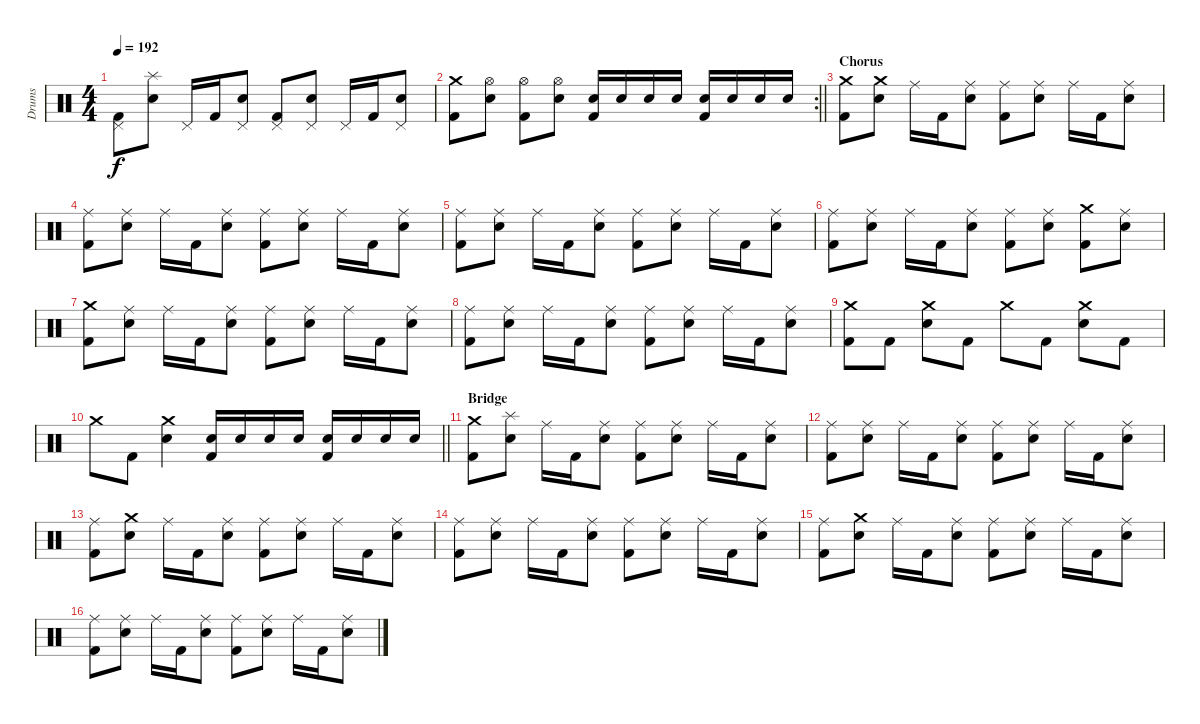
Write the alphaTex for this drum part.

\track ("Drums" "Drums") {instrument percussion}
\staff {score}
\articulation defaults
\ts (4 4)
\tempo 192
\clef neutral
\ks c
("Pedal Hi-Hat (hit)" "Kick (hit) 2").8{dy f} ("Splash (hit)" "Electric Snare (hit)").8 "Pedal Hi-Hat (hit)".16 "Kick (hit) 2".16 ("Pedal Hi-Hat (hit)" "Electric Snare (hit)").8 ("Pedal Hi-Hat (hit)" "Kick (hit) 2").8 ("Pedal Hi-Hat (hit)" "Electric Snare (hit)").8 "Pedal Hi-Hat (hit)".16 "Kick (hit) 2".16 ("Pedal Hi-Hat (hit)" "Electric Snare (hit)").8 |
\rc 2
\barLineRight lightlight
("Crash medium (hit)" "Kick (hit) 2").8 ("Hi-Hat (open)" "Electric Snare (hit)").8 ("Hi-Hat (open)" "Kick (hit) 2").8 ("Hi-Hat (open)" "Electric Snare (hit)").8 ("Electric Snare (hit)" "Kick (hit) 2").16 "Electric Snare (hit)".16 "Electric Snare (hit)".16 "Electric Snare (hit)".16 ("Electric Snare (hit)" "Kick (hit) 2").16 "Electric Snare (hit)".16 "Electric Snare (hit)".16 "Electric Snare (hit)".16 |
\section ("" "Chorus")
("Crash medium (hit)" "Kick (hit) 2").8 ("Crash medium (hit)" "Electric Snare (hit)").8 "Ride (middle)".16 "Kick (hit) 2".16 ("Ride (middle)" "Electric Snare (hit)").8 ("Ride (middle)" "Kick (hit) 2").8 ("Ride (middle)" "Electric Snare (hit)").8 "Ride (middle)".16 "Kick (hit) 2".16 ("Ride (middle)" "Electric Snare (hit)").8 |
("Ride (middle)" "Kick (hit) 2").8 ("Ride (middle)" "Electric Snare (hit)").8 "Ride (middle)".16 "Kick (hit) 2".16 ("Ride (middle)" "Electric Snare (hit)").8 ("Ride (middle)" "Kick (hit) 2").8 ("Ride (middle)" "Electric Snare (hit)").8 "Ride (middle)".16 "Kick (hit) 2".16 ("Ride (middle)" "Electric Snare (hit)").8 |
("Ride (middle)" "Kick (hit) 2").8 ("Ride (middle)" "Electric Snare (hit)").8 "Ride (middle)".16 "Kick (hit) 2".16 ("Ride (middle)" "Electric Snare (hit)").8 ("Ride (middle)" "Kick (hit) 2").8 ("Ride (middle)" "Electric Snare (hit)").8 "Ride (middle)".16 "Kick (hit) 2".16 ("Ride (middle)" "Electric Snare (hit)").8 |
("Ride (middle)" "Kick (hit) 2").8 ("Ride (middle)" "Electric Snare (hit)").8 "Ride (middle)".16 "Kick (hit) 2".16 ("Ride (middle)" "Electric Snare (hit)").8 ("Ride (middle)" "Kick (hit) 2").8 ("Ride (middle)" "Electric Snare (hit)").8 ("Crash medium (hit)" "Kick (hit) 2").8 ("Ride (middle)" "Electric Snare (hit)").8 |
("Crash medium (hit)" "Kick (hit) 2").8 ("Ride (middle)" "Electric Snare (hit)").8 "Ride (middle)".16 "Kick (hit) 2".16 ("Ride (middle)" "Electric Snare (hit)").8 ("Ride (middle)" "Kick (hit) 2").8 ("Ride (middle)" "Electric Snare (hit)").8 "Ride (middle)".16 "Kick (hit) 2".16 ("Ride (middle)" "Electric Snare (hit)").8 |
("Ride (middle)" "Kick (hit) 2").8 ("Ride (middle)" "Electric Snare (hit)").8 "Ride (middle)".16 "Kick (hit) 2".16 ("Ride (middle)" "Electric Snare (hit)").8 ("Ride (middle)" "Kick (hit) 2").8 ("Ride (middle)" "Electric Snare (hit)").8 "Ride (middle)".16 "Kick (hit) 2".16 ("Ride (middle)" "Electric Snare (hit)").8 |
("Crash medium (hit)" "Kick (hit) 2").8 "Kick (hit) 2".8 ("Crash medium (hit)" "Electric Snare (hit)").8 "Kick (hit) 2".8 "Crash medium (hit)".8 "Kick (hit) 2".8 ("Crash medium (hit)" "Electric Snare (hit)").8 "Kick (hit) 2".8 |
\barLineRight lightlight "Crash medium (hit)".8 "Kick (hit) 2".8
("Crash medium (hit)" "Electric Snare (hit)").4 ("Electric Snare (hit)" "Kick (hit) 2").16 "Electric Snare (hit)".16 "Electric Snare (hit)".16 "Electric Snare (hit)".16 ("Electric Snare (hit)" "Kick (hit) 2").16 "Electric Snare (hit)".16 "Electric Snare (hit)".16 "Electric Snare (hit)".16 |
\section ("" "Bridge")
("Crash medium (hit)" "Kick (hit) 2").8 ("Splash (hit)" "Electric Snare (hit)").8 "Ride (middle)".16 "Kick (hit) 2".16 ("Ride (middle)" "Electric Snare (hit)").8 ("Ride (middle)" "Kick (hit) 2").8 ("Ride (middle)" "Electric Snare (hit)").8 "Ride (middle)".16 "Kick (hit) 2".16 ("Ride (middle)" "Electric Snare (hit)").8 |
("Ride (middle)" "Kick (hit) 2").8 ("Ride (middle)" "Electric Snare (hit)").8 "Ride (middle)".16 "Kick (hit) 2".16 ("Ride (middle)" "Electric Snare (hit)").8 ("Ride (middle)" "Kick (hit) 2").8 ("Ride (middle)" "Electric Snare (hit)").8 "Ride (middle)".16 "Kick (hit) 2".16 ("Ride (middle)" "Electric Snare (hit)").8 |
("Ride (middle)" "Kick (hit) 2").8 ("Crash medium (hit)" "Electric Snare (hit)").8 "Ride (middle)".16 "Kick (hit) 2".16 ("Ride (middle)" "Electric Snare (hit)").8 ("Ride (middle)" "Kick (hit) 2").8 ("Ride (middle)" "Electric Snare (hit)").8 "Ride (middle)".16 "Kick (hit) 2".16 ("Ride (middle)" "Electric Snare (hit)").8 |
("Ride (middle)" "Kick (hit) 2").8 ("Ride (middle)" "Electric Snare (hit)").8 "Ride (middle)".16 "Kick (hit) 2".16 ("Ride (middle)" "Electric Snare (hit)").8 ("Ride (middle)" "Kick (hit) 2").8 ("Ride (middle)" "Electric Snare (hit)").8 "Ride (middle)".16 "Kick (hit) 2".16 ("Ride (middle)" "Electric Snare (hit)").8 |
("Ride (middle)" "Kick (hit) 2").8 ("Crash medium (hit)" "Electric Snare (hit)").8 "Ride (middle)".16 "Kick (hit) 2".16 ("Ride (middle)" "Electric Snare (hit)").8 ("Ride (middle)" "Kick (hit) 2").8 ("Ride (middle)" "Electric Snare (hit)").8 "Ride (middle)".16 "Kick (hit) 2".16 ("Ride (middle)" "Electric Snare (hit)").8 |
("Ride (middle)" "Kick (hit) 2").8 ("Ride (middle)" "Electric Snare (hit)").8 "Ride (middle)".16 "Kick (hit) 2".16 ("Ride (middle)" "Electric Snare (hit)").8 ("Ride (middle)" "Kick (hit) 2").8 ("Ride (middle)" "Electric Snare (hit)").8 "Ride (middle)".16 "Kick (hit) 2".16 ("Ride (middle)" "Electric Snare (hit)").8
